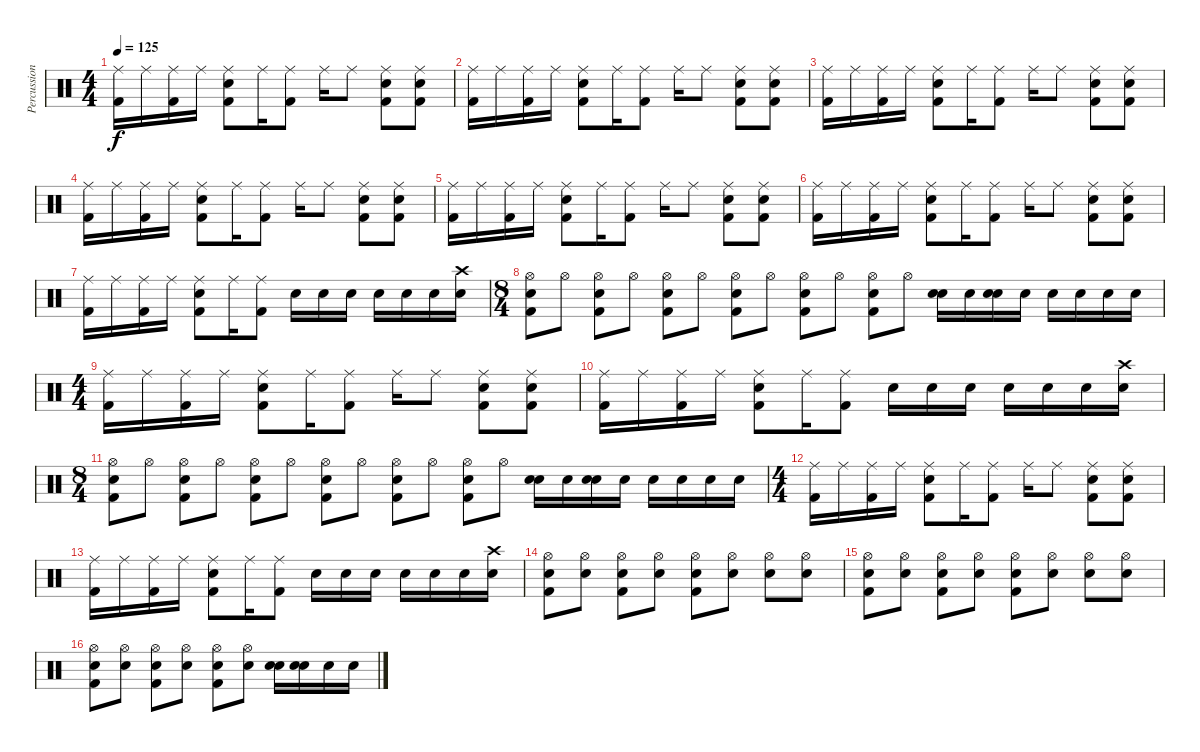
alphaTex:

\track ("Percussions" "Percussion") {instrument percussion}
\staff {score}
\articulation defaults
\ts (4 4)
\tempo 125
\clef neutral
\ks c
("Ride (middle)" "Kick (hit) 2").16{dy f} "Ride (middle)".16 ("Ride (middle)" "Kick (hit) 2").16 "Ride (middle)".16 ("Ride (middle)" "Snare (hit) 2" "Kick (hit) 2").8 "Ride (middle)".16 ("Ride (middle)" "Kick (hit) 2").8 "Ride (middle)".16 "Ride (middle)".8 ("Ride (middle)" "Snare (hit) 2" "Kick (hit) 2").8 ("Ride (middle)" "Snare (hit) 2" "Kick (hit) 2").8 |
("Ride (middle)" "Kick (hit) 2").16 "Ride (middle)".16 ("Ride (middle)" "Kick (hit) 2").16 "Ride (middle)".16 ("Ride (middle)" "Snare (hit) 2" "Kick (hit) 2").8 "Ride (middle)".16 ("Ride (middle)" "Kick (hit) 2").8 "Ride (middle)".16 "Ride (middle)".8 ("Ride (middle)" "Snare (hit) 2" "Kick (hit) 2").8 ("Ride (middle)" "Snare (hit) 2" "Kick (hit) 2").8 |
("Ride (middle)" "Kick (hit) 2").16 "Ride (middle)".16 ("Ride (middle)" "Kick (hit) 2").16 "Ride (middle)".16 ("Ride (middle)" "Snare (hit) 2" "Kick (hit) 2").8 "Ride (middle)".16 ("Ride (middle)" "Kick (hit) 2").8 "Ride (middle)".16 "Ride (middle)".8 ("Ride (middle)" "Snare (hit) 2" "Kick (hit) 2").8 ("Ride (middle)" "Snare (hit) 2" "Kick (hit) 2").8 |
("Ride (middle)" "Kick (hit) 2").16 "Ride (middle)".16 ("Ride (middle)" "Kick (hit) 2").16 "Ride (middle)".16 ("Ride (middle)" "Snare (hit) 2" "Kick (hit) 2").8 "Ride (middle)".16 ("Ride (middle)" "Kick (hit) 2").8 "Ride (middle)".16 "Ride (middle)".8 ("Ride (middle)" "Snare (hit) 2" "Kick (hit) 2").8 ("Ride (middle)" "Snare (hit) 2" "Kick (hit) 2").8 |
("Ride (middle)" "Kick (hit) 2").16 "Ride (middle)".16 ("Ride (middle)" "Kick (hit) 2").16 "Ride (middle)".16 ("Ride (middle)" "Snare (hit) 2" "Kick (hit) 2").8 "Ride (middle)".16 ("Ride (middle)" "Kick (hit) 2").8 "Ride (middle)".16 "Ride (middle)".8 ("Ride (middle)" "Snare (hit) 2" "Kick (hit) 2").8 ("Ride (middle)" "Snare (hit) 2" "Kick (hit) 2").8 |
("Ride (middle)" "Kick (hit) 2").16 "Ride (middle)".16 ("Ride (middle)" "Kick (hit) 2").16 "Ride (middle)".16 ("Ride (middle)" "Snare (hit) 2" "Kick (hit) 2").8 "Ride (middle)".16 ("Ride (middle)" "Kick (hit) 2").8 "Ride (middle)".16 "Ride (middle)".8 ("Ride (middle)" "Snare (hit) 2" "Kick (hit) 2").8 ("Ride (middle)" "Snare (hit) 2" "Kick (hit) 2").8 |
("Ride (middle)" "Kick (hit) 2").16 "Ride (middle)".16 ("Ride (middle)" "Kick (hit) 2").16 "Ride (middle)".16 ("Ride (middle)" "Snare (hit) 2" "Kick (hit) 2").8 "Ride (middle)".16 ("Ride (middle)" "Kick (hit) 2").8 "Snare (hit) 2".16 "Snare (hit) 2".16 "Snare (hit) 2".16 "Snare (hit) 2".16 "Snare (hit) 2".16 "Snare (hit) 2".16 ("Snare (hit) 2" "Crash high (hit)").16 |
\ts (8 4)
("Hi-Hat (open)" "Snare (hit) 2" "Kick (hit) 2").8 "Hi-Hat (open)".8 ("Hi-Hat (open)" "Snare (hit) 2" "Kick (hit) 2").8 "Hi-Hat (open)".8 ("Hi-Hat (open)" "Snare (hit) 2" "Kick (hit) 2").8 "Hi-Hat (open)".8 ("Hi-Hat (open)" "Snare (hit) 2" "Kick (hit) 2").8 "Hi-Hat (open)".8 ("Hi-Hat (open)" "Snare (hit) 2" "Kick (hit) 2").8 "Hi-Hat (open)".8 ("Hi-Hat (open)" "Snare (hit) 2" "Kick (hit) 2").8 "Hi-Hat (open)".8 ("Snare (hit) 2" "Snare (hit) 2").16 "Snare (hit) 2".16 ("Snare (hit) 2" "Snare (hit) 2").16 "Snare (hit) 2".16 "Snare (hit) 2".16 "Snare (hit) 2".16 "Snare (hit) 2".16 "Snare (hit) 2".16 |
\ts (4 4)
("Ride (middle)" "Kick (hit) 2").16 "Ride (middle)".16 ("Ride (middle)" "Kick (hit) 2").16 "Ride (middle)".16 ("Ride (middle)" "Snare (hit) 2" "Kick (hit) 2").8 "Ride (middle)".16 ("Ride (middle)" "Kick (hit) 2").8 "Ride (middle)".16 "Ride (middle)".8 ("Ride (middle)" "Snare (hit) 2" "Kick (hit) 2").8 ("Ride (middle)" "Snare (hit) 2" "Kick (hit) 2").8 |
("Ride (middle)" "Kick (hit) 2").16 "Ride (middle)".16 ("Ride (middle)" "Kick (hit) 2").16 "Ride (middle)".16 ("Ride (middle)" "Snare (hit) 2" "Kick (hit) 2").8 "Ride (middle)".16 ("Ride (middle)" "Kick (hit) 2").8 "Snare (hit) 2".16 "Snare (hit) 2".16 "Snare (hit) 2".16 "Snare (hit) 2".16 "Snare (hit) 2".16 "Snare (hit) 2".16 ("Snare (hit) 2" "Crash high (hit)").16 |
\ts (8 4)
("Hi-Hat (open)" "Snare (hit) 2" "Kick (hit) 2").8 "Hi-Hat (open)".8 ("Hi-Hat (open)" "Snare (hit) 2" "Kick (hit) 2").8 "Hi-Hat (open)".8 ("Hi-Hat (open)" "Snare (hit) 2" "Kick (hit) 2").8 "Hi-Hat (open)".8 ("Hi-Hat (open)" "Snare (hit) 2" "Kick (hit) 2").8 "Hi-Hat (open)".8 ("Hi-Hat (open)" "Snare (hit) 2" "Kick (hit) 2").8 "Hi-Hat (open)".8 ("Hi-Hat (open)" "Snare (hit) 2" "Kick (hit) 2").8 "Hi-Hat (open)".8 ("Snare (hit) 2" "Snare (hit) 2").16 "Snare (hit) 2".16 ("Snare (hit) 2" "Snare (hit) 2").16 "Snare (hit) 2".16 "Snare (hit) 2".16 "Snare (hit) 2".16 "Snare (hit) 2".16 "Snare (hit) 2".16 |
\ts (4 4)
("Ride (middle)" "Kick (hit) 2").16 "Ride (middle)".16 ("Ride (middle)" "Kick (hit) 2").16 "Ride (middle)".16 ("Ride (middle)" "Snare (hit) 2" "Kick (hit) 2").8 "Ride (middle)".16 ("Ride (middle)" "Kick (hit) 2").8 "Ride (middle)".16 "Ride (middle)".8 ("Ride (middle)" "Snare (hit) 2" "Kick (hit) 2").8 ("Ride (middle)" "Snare (hit) 2" "Kick (hit) 2").8 |
("Ride (middle)" "Kick (hit) 2").16 "Ride (middle)".16 ("Ride (middle)" "Kick (hit) 2").16 "Ride (middle)".16 ("Ride (middle)" "Snare (hit) 2" "Kick (hit) 2").8 "Ride (middle)".16 ("Ride (middle)" "Kick (hit) 2").8 "Snare (hit) 2".16 "Snare (hit) 2".16 "Snare (hit) 2".16 "Snare (hit) 2".16 "Snare (hit) 2".16 "Snare (hit) 2".16 ("Snare (hit) 2" "Crash high (hit)").16 |
("Hi-Hat (open)" "Snare (hit)" "Kick (hit) 2").8 ("Hi-Hat (open)" "Snare (hit) 2").8 ("Hi-Hat (open)" "Snare (hit)" "Kick (hit) 2").8 ("Hi-Hat (open)" "Snare (hit) 2").8 ("Hi-Hat (open)" "Snare (hit)" "Kick (hit) 2").8 ("Hi-Hat (open)" "Snare (hit) 2").8 ("Hi-Hat (open)" "Snare (hit)").8 ("Hi-Hat (open)" "Snare (hit) 2").8 |
("Hi-Hat (open)" "Snare (hit)" "Kick (hit) 2").8 ("Hi-Hat (open)" "Snare (hit) 2").8 ("Hi-Hat (open)" "Snare (hit)" "Kick (hit) 2").8 ("Hi-Hat (open)" "Snare (hit) 2").8 ("Hi-Hat (open)" "Snare (hit)" "Kick (hit) 2").8 ("Hi-Hat (open)" "Snare (hit) 2").8 ("Hi-Hat (open)" "Snare (hit)").8 ("Hi-Hat (open)" "Snare (hit) 2").8 |
("Hi-Hat (open)" "Snare (hit)" "Kick (hit) 2").8 ("Hi-Hat (open)" "Snare (hit) 2").8 ("Hi-Hat (open)" "Snare (hit)" "Kick (hit) 2").8 ("Hi-Hat (open)" "Snare (hit) 2").8 ("Hi-Hat (open)" "Snare (hit)" "Kick (hit) 2").8 ("Hi-Hat (open)" "Snare (hit) 2").8 ("Snare (hit)" "Snare (hit) 2").16 ("Snare (hit)" "Snare (hit) 2").16 "Snare (hit) 2".16 "Snare (hit) 2".16
